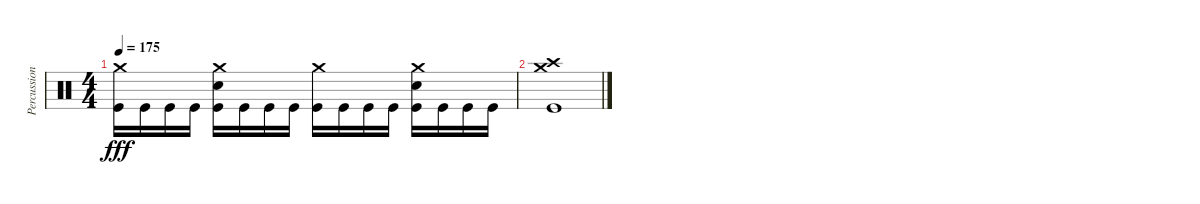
\track ("Percussion" "Percussion") {instrument percussion}
\staff {score}
\articulation defaults
\ts (4 4)
\tempo 175
\clef neutral
\ks c
("Crash medium (hit)" "Kick (hit)").16{dy fff} "Kick (hit)".16 "Kick (hit)".16 "Kick (hit)".16 ("Crash medium (hit)" "Electric Snare (hit)" "Kick (hit)").16 "Kick (hit)".16 "Kick (hit)".16 "Kick (hit)".16 ("Crash medium (hit)" "Kick (hit)").16 "Kick (hit)".16 "Kick (hit)".16 "Kick (hit)".16 ("Crash medium (hit)" "Electric Snare (hit)" "Kick (hit)").16 "Kick (hit)".16 "Kick (hit)".16 "Kick (hit)".16 |
("Crash medium (hit)" "Crash high (hit)" "Kick (hit)").1
